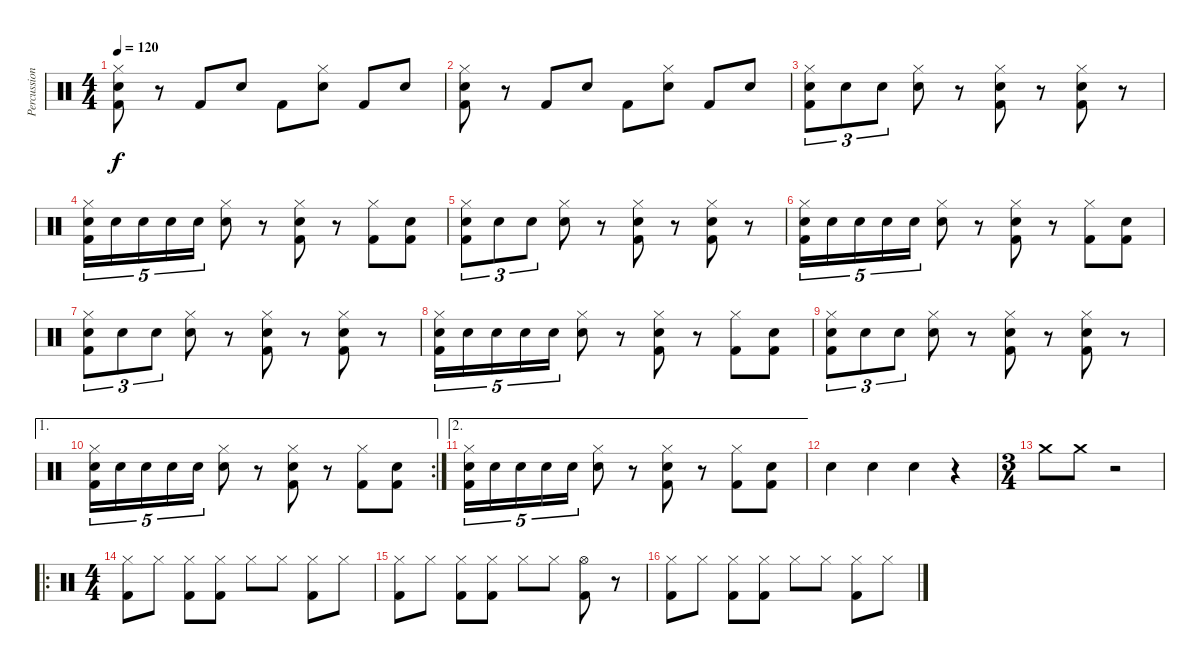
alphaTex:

\track ("Percussion" "Percussion") {instrument percussion}
\staff {score}
\articulation defaults
\ts (4 4)
\tempo 120
\clef neutral
\ks c
("Hi-Hat (closed)" "Snare (hit) 2" "Kick (hit) 2").8{dy f} r.8 "Kick (hit) 2".8 "Snare (hit) 2".8 "Kick (hit) 2".8 ("Hi-Hat (closed)" "Snare (hit) 2").8 "Kick (hit) 2".8 "Snare (hit) 2".8 |
("Hi-Hat (closed)" "Snare (hit) 2" "Kick (hit) 2").8 r.8 "Kick (hit) 2".8 "Snare (hit) 2".8 "Kick (hit) 2".8 ("Hi-Hat (closed)" "Snare (hit) 2").8 "Kick (hit) 2".8 "Snare (hit) 2".8 |
("Hi-Hat (closed)" "Snare (hit) 2" "Kick (hit) 2").8{tu (3 2)} "Snare (hit) 2".8{tu (3 2)} "Snare (hit) 2".8{tu (3 2)} ("Hi-Hat (closed)" "Snare (hit) 2").8 r.8 ("Hi-Hat (closed)" "Snare (hit) 2" "Kick (hit) 2").8 r.8 ("Hi-Hat (closed)" "Snare (hit) 2" "Kick (hit) 2").8 r.8 |
("Hi-Hat (closed)" "Snare (hit) 2" "Kick (hit) 2").16{tu (5 4)} "Snare (hit) 2".16{tu (5 4)} "Snare (hit) 2".16{tu (5 4)} "Snare (hit) 2".16{tu (5 4)} "Snare (hit) 2".16{tu (5 4)} ("Hi-Hat (closed)" "Snare (hit) 2").8 r.8 ("Hi-Hat (closed)" "Snare (hit) 2" "Kick (hit) 2").8 r.8 ("Hi-Hat (closed)" "Kick (hit) 2").8 ("Snare (hit) 2" "Kick (hit) 2").8 |
("Hi-Hat (closed)" "Snare (hit) 2" "Kick (hit) 2").8{tu (3 2)} "Snare (hit) 2".8{tu (3 2)} "Snare (hit) 2".8{tu (3 2)} ("Hi-Hat (closed)" "Snare (hit) 2").8 r.8 ("Hi-Hat (closed)" "Snare (hit) 2" "Kick (hit) 2").8 r.8 ("Hi-Hat (closed)" "Snare (hit) 2" "Kick (hit) 2").8 r.8 |
("Hi-Hat (closed)" "Snare (hit) 2" "Kick (hit) 2").16{tu (5 4)} "Snare (hit) 2".16{tu (5 4)} "Snare (hit) 2".16{tu (5 4)} "Snare (hit) 2".16{tu (5 4)} "Snare (hit) 2".16{tu (5 4)} ("Hi-Hat (closed)" "Snare (hit) 2").8 r.8 ("Hi-Hat (closed)" "Snare (hit) 2" "Kick (hit) 2").8 r.8 ("Hi-Hat (closed)" "Kick (hit) 2").8 ("Snare (hit) 2" "Kick (hit) 2").8 |
("Hi-Hat (closed)" "Snare (hit) 2" "Kick (hit) 2").8{tu (3 2)} "Snare (hit) 2".8{tu (3 2)} "Snare (hit) 2".8{tu (3 2)} ("Hi-Hat (closed)" "Snare (hit) 2").8 r.8 ("Hi-Hat (closed)" "Snare (hit) 2" "Kick (hit) 2").8 r.8 ("Hi-Hat (closed)" "Snare (hit) 2" "Kick (hit) 2").8 r.8 |
("Hi-Hat (closed)" "Snare (hit) 2" "Kick (hit) 2").16{tu (5 4)} "Snare (hit) 2".16{tu (5 4)} "Snare (hit) 2".16{tu (5 4)} "Snare (hit) 2".16{tu (5 4)} "Snare (hit) 2".16{tu (5 4)} ("Hi-Hat (closed)" "Snare (hit) 2").8 r.8 ("Hi-Hat (closed)" "Snare (hit) 2" "Kick (hit) 2").8 r.8 ("Hi-Hat (closed)" "Kick (hit) 2").8 ("Snare (hit) 2" "Kick (hit) 2").8 |
("Hi-Hat (closed)" "Snare (hit) 2" "Kick (hit) 2").8{tu (3 2)} "Snare (hit) 2".8{tu (3 2)} "Snare (hit) 2".8{tu (3 2)} ("Hi-Hat (closed)" "Snare (hit) 2").8 r.8 ("Hi-Hat (closed)" "Snare (hit) 2" "Kick (hit) 2").8 r.8 ("Hi-Hat (closed)" "Snare (hit) 2" "Kick (hit) 2").8 r.8 |
\ae 1
\rc 2
("Hi-Hat (closed)" "Snare (hit) 2" "Kick (hit) 2").16{tu (5 4)} "Snare (hit) 2".16{tu (5 4)} "Snare (hit) 2".16{tu (5 4)} "Snare (hit) 2".16{tu (5 4)} "Snare (hit) 2".16{tu (5 4)} ("Hi-Hat (closed)" "Snare (hit) 2").8 r.8 ("Hi-Hat (closed)" "Snare (hit) 2" "Kick (hit) 2").8 r.8 ("Hi-Hat (closed)" "Kick (hit) 2").8 ("Snare (hit) 2" "Kick (hit) 2").8 |
\ae 2
("Hi-Hat (closed)" "Snare (hit) 2" "Kick (hit) 2").16{tu (5 4)} "Snare (hit) 2".16{tu (5 4)} "Snare (hit) 2".16{tu (5 4)} "Snare (hit) 2".16{tu (5 4)} "Snare (hit) 2".16{tu (5 4)} ("Hi-Hat (closed)" "Snare (hit) 2").8 r.8 ("Hi-Hat (closed)" "Snare (hit) 2" "Kick (hit) 2").8 r.8 ("Hi-Hat (closed)" "Kick (hit) 2").8 ("Snare (hit) 2" "Kick (hit) 2").8 |
"Snare (hit) 2".4 "Snare (hit) 2".4 "Snare (hit) 2".4 r.4 |
\ts (3 4)
"Crash medium (hit)".8 "Crash medium (hit)".8 r.2 |
\ro
\ts (4 4)
("Hi-Hat (closed)" "Kick (hit) 2").8 "Hi-Hat (closed)".8 ("Hi-Hat (closed)" "Kick (hit) 2").8 ("Hi-Hat (closed)" "Kick (hit) 2").8 "Hi-Hat (closed)".8 "Hi-Hat (closed)".8 ("Hi-Hat (closed)" "Kick (hit) 2").8 "Hi-Hat (closed)".8 |
("Hi-Hat (closed)" "Kick (hit) 2").8 "Hi-Hat (closed)".8 ("Hi-Hat (closed)" "Kick (hit) 2").8 ("Hi-Hat (closed)" "Kick (hit) 2").8 "Hi-Hat (closed)".8 "Hi-Hat (closed)".8 ("Hi-Hat (open)" "Kick (hit) 2").8 r.8 |
("Hi-Hat (closed)" "Kick (hit) 2").8 "Hi-Hat (closed)".8 ("Hi-Hat (closed)" "Kick (hit) 2").8 ("Hi-Hat (closed)" "Kick (hit) 2").8 "Hi-Hat (closed)".8 "Hi-Hat (closed)".8 ("Hi-Hat (closed)" "Kick (hit) 2").8 "Hi-Hat (closed)".8
